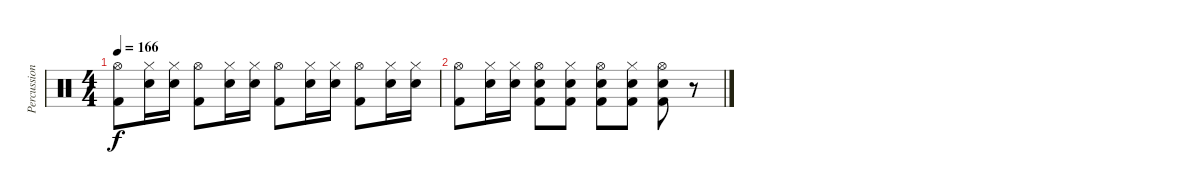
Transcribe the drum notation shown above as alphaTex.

\track ("Percussion" "Percussion") {instrument percussion}
\staff {score}
\articulation defaults
\ts (4 4)
\tempo 166
\clef neutral
\ks c
("Hi-Hat (open)" "Kick (hit) 2").8{dy f} ("Hi-Hat (closed)" "Snare (hit) 2").16 ("Hi-Hat (closed)" "Snare (hit) 2").16 ("Hi-Hat (open)" "Kick (hit) 2").8 ("Hi-Hat (closed)" "Snare (hit) 2").16 ("Hi-Hat (closed)" "Snare (hit) 2").16 ("Hi-Hat (open)" "Kick (hit) 2").8 ("Hi-Hat (closed)" "Snare (hit) 2").16 ("Hi-Hat (closed)" "Snare (hit) 2").16 ("Hi-Hat (open)" "Kick (hit) 2").8 ("Hi-Hat (closed)" "Snare (hit) 2").16 ("Hi-Hat (closed)" "Snare (hit) 2").16 |
("Hi-Hat (open)" "Kick (hit) 2").8 ("Hi-Hat (closed)" "Snare (hit) 2").16 ("Hi-Hat (closed)" "Snare (hit) 2").16 ("Hi-Hat (open)" "Snare (hit) 2" "Kick (hit) 2").8 ("Hi-Hat (closed)" "Snare (hit) 2" "Kick (hit) 2").8 ("Hi-Hat (open)" "Snare (hit) 2" "Kick (hit) 2").8 ("Hi-Hat (closed)" "Snare (hit) 2" "Kick (hit) 2").8 ("Hi-Hat (open)" "Snare (hit) 2" "Kick (hit) 2").8 r.8
